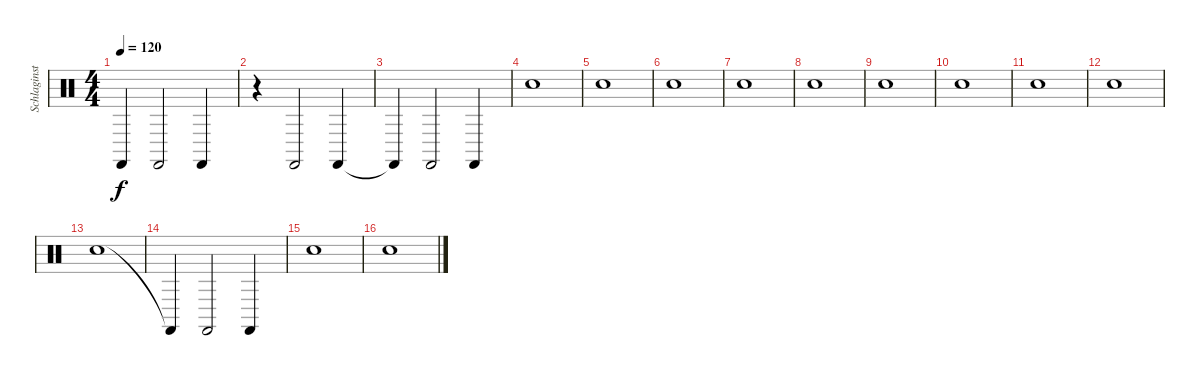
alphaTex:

\track ("Schlaginstrumente - Auswahl" "Schlaginst") {instrument percussion}
\staff {score}
\articulation defaults
\ts (4 4)
\tempo 120
\clef neutral
\ks c "Castanets (hit)"{t}.4{dy f} "Castanets (hit)".2 "Castanets (hit)".4
|
r.4 "Castanets (hit)".2 "Castanets (hit)".4 |
"Castanets (hit)"{t}.4 "Castanets (hit)".2 "Castanets (hit)".4 |
"Hand Clap (hit)".1 |
"Hand Clap (hit)".1 |
"Hand Clap (hit)".1 |
"Hand Clap (hit)".1 |
"Hand Clap (hit)".1 |
"Hand Clap (hit)".1 |
"Hand Clap (hit)".1 |
"Hand Clap (hit)".1 |
"Hand Clap (hit)".1 |
"Hand Clap (hit)".1 |
"Castanets (hit)"{t}.4 "Castanets (hit)".2 "Castanets (hit)".4 |
"Hand Clap (hit)".1 |
"Hand Clap (hit)".1
